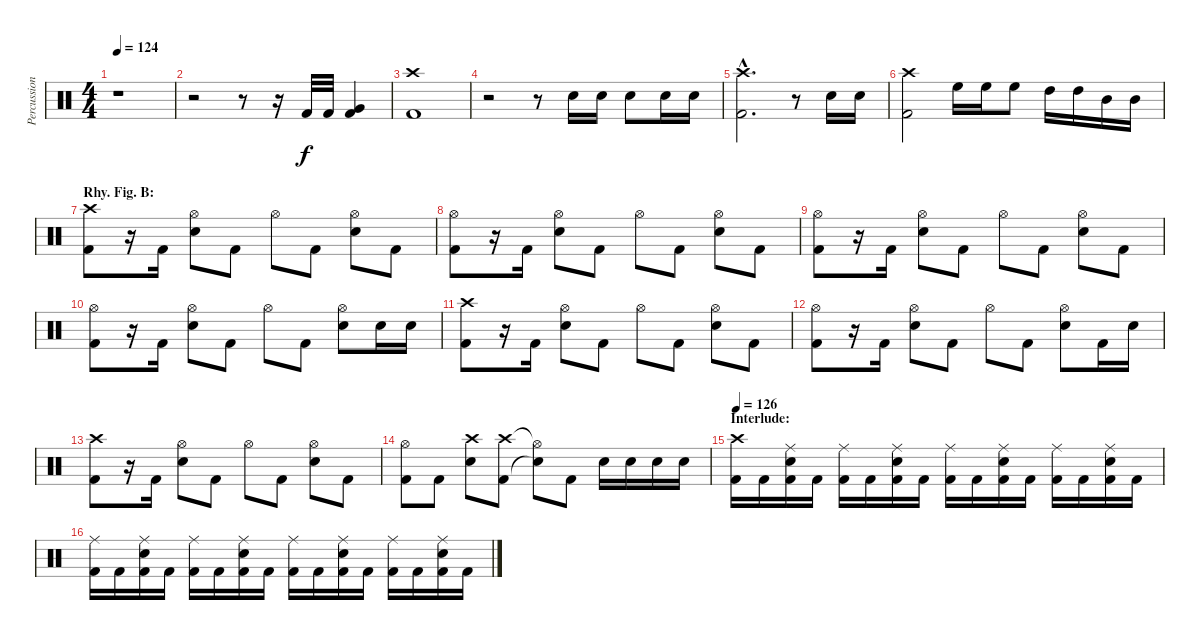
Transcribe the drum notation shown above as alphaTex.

\track ("Percussion" "Percussion") {instrument percussion}
\staff {score}
\articulation defaults
\ts (4 4)
\tempo 124
\clef neutral
\ks c
r.1{dy f} |
r.2 r.8 r.16 "Kick (hit) 2".32 "Kick (hit) 2".32 ("Very Low Tom (hit)" "Kick (hit) 2").4 |
("Crash high (hit)" "Kick (hit) 2").1 |
r.2 r.8 "Electric Snare (hit)".16 "Electric Snare (hit)".16 "Electric Snare (hit)".8 "Electric Snare (hit)".16 "Electric Snare (hit)".16 |
("Crash high (hit)"{hac} "Kick (hit) 2"{hac}).2{d} r.8 "Electric Snare (hit)".16 "Electric Snare (hit)".16 |
("Crash high (hit)" "Kick (hit) 2").2 "High Floor Tom (hit)".16 "High Floor Tom (hit)".16 "High Floor Tom (hit)".8 "High Tom (hit)".16 "High Tom (hit)".16 "Mid Tom (hit)".16 "Mid Tom (hit)".16 |
\section ("" "Rhy. Fig. B:")
("Crash high (hit)" "Kick (hit) 2").8 r.16 "Kick (hit) 2".16 ("Hi-Hat (open)" "Electric Snare (hit)").8 "Kick (hit) 2".8 "Hi-Hat (open)".8 "Kick (hit) 2".8 ("Hi-Hat (open)" "Electric Snare (hit)").8 "Kick (hit) 2".8 |
("Hi-Hat (open)" "Kick (hit) 2").8 r.16 "Kick (hit) 2".16 ("Hi-Hat (open)" "Electric Snare (hit)").8 "Kick (hit) 2".8 "Hi-Hat (open)".8 "Kick (hit) 2".8 ("Hi-Hat (open)" "Electric Snare (hit)").8 "Kick (hit) 2".8 |
("Hi-Hat (open)" "Kick (hit) 2").8 r.16 "Kick (hit) 2".16 ("Hi-Hat (open)" "Electric Snare (hit)").8 "Kick (hit) 2".8 "Hi-Hat (open)".8 "Kick (hit) 2".8 ("Hi-Hat (open)" "Electric Snare (hit)").8 "Kick (hit) 2".8 |
("Hi-Hat (open)" "Kick (hit) 2").8 r.16 "Kick (hit) 2".16 ("Hi-Hat (open)" "Electric Snare (hit)").8 "Kick (hit) 2".8 "Hi-Hat (open)".8 "Kick (hit) 2".8 ("Hi-Hat (open)" "Electric Snare (hit)").8 "Electric Snare (hit)".16 "Electric Snare (hit)".16 |
("Crash high (hit)" "Kick (hit) 2").8 r.16 "Kick (hit) 2".16 ("Hi-Hat (open)" "Electric Snare (hit)").8 "Kick (hit) 2".8 "Hi-Hat (open)".8 "Kick (hit) 2".8 ("Hi-Hat (open)" "Electric Snare (hit)").8 "Kick (hit) 2".8 |
("Hi-Hat (open)" "Kick (hit) 2").8 r.16 "Kick (hit) 2".16 ("Hi-Hat (open)" "Electric Snare (hit)").8 "Kick (hit) 2".8 "Hi-Hat (open)".8 "Kick (hit) 2".8 ("Hi-Hat (open)" "Electric Snare (hit)").8 "Kick (hit) 2".16 "Electric Snare (hit)".16 |
("Crash high (hit)" "Kick (hit) 2").8 r.16 "Kick (hit) 2".16 ("Hi-Hat (open)" "Electric Snare (hit)").8 "Kick (hit) 2".8 "Hi-Hat (open)".8 "Kick (hit) 2".8 ("Hi-Hat (open)" "Electric Snare (hit)").8 "Kick (hit) 2".8 |
("Hi-Hat (open)" "Kick (hit) 2").8 "Kick (hit) 2".8 ("Crash high (hit)" "Electric Snare (hit)").8 ("Crash high (hit)" "Kick (hit) 2").8 ("Hi-Hat (open)"{t} "Snare (hit)"{t}).8 "Kick (hit) 2".8 "Electric Snare (hit)".16 "Electric Snare (hit)".16 "Electric Snare (hit)".16 "Electric Snare (hit)".16 |
\section ("" "Interlude:")
\tempo 126
("Crash high (hit)" "Kick (hit) 2").16 "Kick (hit) 2".16 ("Ride (middle)" "Electric Snare (hit)" "Kick (hit) 2").16 "Kick (hit) 2".16 ("Ride (middle)" "Kick (hit) 2").16 "Kick (hit) 2".16 ("Ride (middle)" "Electric Snare (hit)" "Kick (hit) 2").16 "Kick (hit) 2".16 ("Ride (middle)" "Kick (hit) 2").16 "Kick (hit) 2".16 ("Ride (middle)" "Electric Snare (hit)" "Kick (hit) 2").16 "Kick (hit) 2".16 ("Ride (middle)" "Kick (hit) 2").16 "Kick (hit) 2".16 ("Ride (middle)" "Electric Snare (hit)" "Kick (hit) 2").16 "Kick (hit) 2".16 |
("Ride (middle)" "Kick (hit) 2").16 "Kick (hit) 2".16 ("Ride (middle)" "Electric Snare (hit)" "Kick (hit) 2").16 "Kick (hit) 2".16 ("Ride (middle)" "Kick (hit) 2").16 "Kick (hit) 2".16 ("Ride (middle)" "Electric Snare (hit)" "Kick (hit) 2").16 "Kick (hit) 2".16 ("Ride (middle)" "Kick (hit) 2").16 "Kick (hit) 2".16 ("Ride (middle)" "Electric Snare (hit)" "Kick (hit) 2").16 "Kick (hit) 2".16 ("Ride (middle)" "Kick (hit) 2").16 "Kick (hit) 2".16 ("Ride (middle)" "Electric Snare (hit)" "Kick (hit) 2").16 "Kick (hit) 2".16
